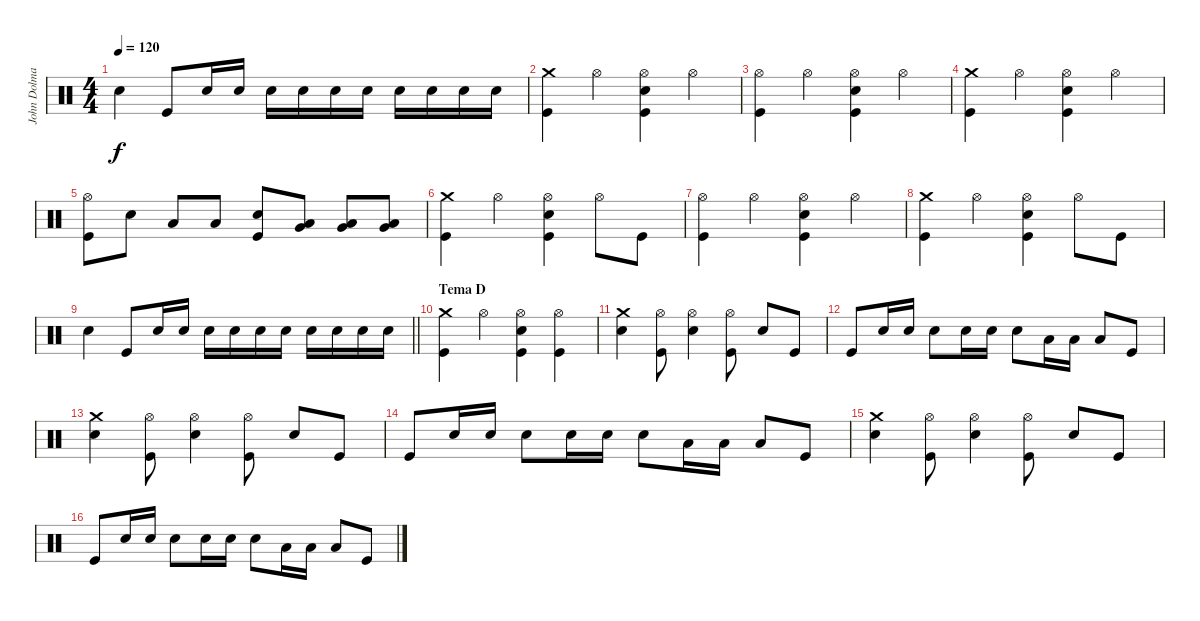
\track ("John Dolmayan (Bateria)" "John Dolma") {instrument percussion}
\staff {score}
\articulation defaults
\ts (4 4)
\tempo 120
\clef neutral
\ks c "Snare (hit) 2".4{dy f} "Kick (hit)".8 "Snare (hit) 2".16 "Snare (hit) 2".16 "Snare (hit) 2".16 "Snare (hit) 2".16 "Snare (hit) 2".16 "Snare (hit) 2".16 "Snare (hit) 2".16 "Snare (hit) 2".16 "Snare (hit) 2".16 "Snare (hit) 2".16
|
("Crash medium (hit)" "Kick (hit)").4 "Hi-Hat (open)".4 ("Hi-Hat (open)" "Snare (hit) 2" "Kick (hit)").4 "Hi-Hat (open)".4 |
("Hi-Hat (open)" "Kick (hit)").4 "Hi-Hat (open)".4 ("Hi-Hat (open)" "Snare (hit) 2" "Kick (hit)").4 "Hi-Hat (open)".4 |
("Crash medium (hit)" "Kick (hit)").4 "Hi-Hat (open)".4 ("Hi-Hat (open)" "Snare (hit) 2" "Kick (hit)").4 "Hi-Hat (open)".4 |
("Hi-Hat (open)" "Kick (hit)").8 "Snare (hit) 2".8 "Low Floor Tom (hit)".8 "Low Floor Tom (hit)".8 ("Snare (hit) 2" "Kick (hit)").8 ("Very Low Tom (hit)" "Low Floor Tom (hit)").8 ("Very Low Tom (hit)" "Low Floor Tom (hit)").8 ("Very Low Tom (hit)" "Low Floor Tom (hit)").8 |
("Crash medium (hit)" "Kick (hit)").4 "Hi-Hat (open)".4 ("Hi-Hat (open)" "Snare (hit) 2" "Kick (hit)").4 "Hi-Hat (open)".8 "Kick (hit)".8 |
("Hi-Hat (open)" "Kick (hit)").4 "Hi-Hat (open)".4 ("Hi-Hat (open)" "Snare (hit) 2" "Kick (hit)").4 "Hi-Hat (open)".4 |
("Crash medium (hit)" "Kick (hit)").4 "Hi-Hat (open)".4 ("Hi-Hat (open)" "Snare (hit) 2" "Kick (hit)").4 "Hi-Hat (open)".8 "Kick (hit)".8 |
\barLineRight lightlight "Snare (hit) 2".4 "Kick (hit)".8 "Snare (hit) 2".16 "Snare (hit) 2".16 "Snare (hit) 2".16 "Snare (hit) 2".16 "Snare (hit) 2".16 "Snare (hit) 2".16 "Snare (hit) 2".16 "Snare (hit) 2".16 "Snare (hit) 2".16 "Snare (hit) 2".16
|
\section ("" "Tema D")
("Crash medium (hit)" "Kick (hit)").4 "Hi-Hat (open)".4 ("Hi-Hat (open)" "Snare (hit) 2" "Kick (hit)").4 ("Hi-Hat (open)" "Kick (hit)").4 |
("Crash medium (hit)" "Snare (hit) 2").4 ("Hi-Hat (open)" "Kick (hit)").8 ("Hi-Hat (open)" "Snare (hit) 2").4 ("Hi-Hat (open)" "Kick (hit)").8 "Snare (hit) 2".8 "Kick (hit)".8 |
"Kick (hit)".8 "Snare (hit) 2".16 "Snare (hit) 2".16 "Snare (hit) 2".8 "Electric Snare (hit)".16 "Electric Snare (hit)".16 "Electric Snare (hit)".8 "Low Floor Tom (hit)".16 "Low Floor Tom (hit)".16 "Low Floor Tom (hit)".8 "Kick (hit)".8 |
("Crash medium (hit)" "Snare (hit) 2").4 ("Hi-Hat (open)" "Kick (hit)").8 ("Hi-Hat (open)" "Snare (hit) 2").4 ("Hi-Hat (open)" "Kick (hit)").8 "Snare (hit) 2".8 "Kick (hit)".8 |
"Kick (hit)".8 "Snare (hit) 2".16 "Snare (hit) 2".16 "Snare (hit) 2".8 "Electric Snare (hit)".16 "Electric Snare (hit)".16 "Electric Snare (hit)".8 "Low Floor Tom (hit)".16 "Low Floor Tom (hit)".16 "Low Floor Tom (hit)".8 "Kick (hit)".8 |
("Crash medium (hit)" "Snare (hit) 2").4 ("Hi-Hat (open)" "Kick (hit)").8 ("Hi-Hat (open)" "Snare (hit) 2").4 ("Hi-Hat (open)" "Kick (hit)").8 "Snare (hit) 2".8 "Kick (hit)".8 |
"Kick (hit)".8 "Snare (hit) 2".16 "Snare (hit) 2".16 "Snare (hit) 2".8 "Electric Snare (hit)".16 "Electric Snare (hit)".16 "Electric Snare (hit)".8 "Low Floor Tom (hit)".16 "Low Floor Tom (hit)".16 "Low Floor Tom (hit)".8 "Kick (hit)".8
